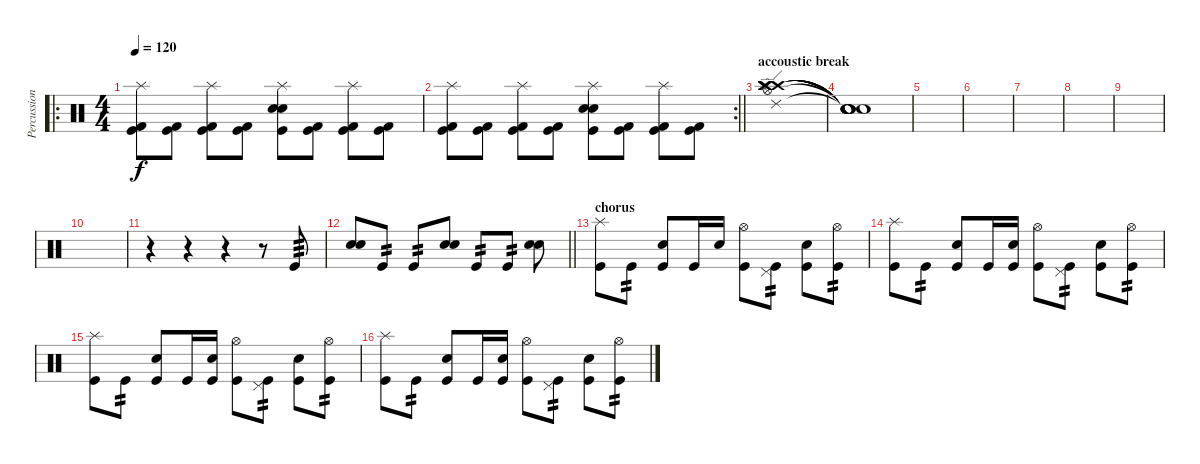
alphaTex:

\track ("Percussion" "Percussion") {instrument percussion}
\staff {score}
\articulation defaults
\ro
\ts (4 4)
\tempo 120
\clef neutral
\ks c
("Splash (hit)" "Kick (hit) 2" "Kick (hit)").8{dy f} ("Kick (hit) 2" "Kick (hit)").8 ("Splash (hit)" "Kick (hit) 2" "Kick (hit)").8 ("Kick (hit) 2" "Kick (hit)").8 ("Splash (hit)" "Snare (hit) 2" "Electric Snare (hit)" "Kick (hit)").8 ("Kick (hit) 2" "Kick (hit)").8 ("Splash (hit)" "Kick (hit) 2" "Kick (hit)").8 ("Kick (hit) 2" "Kick (hit)").8 |
\rc 2
\barLineRight lightlight
("Splash (hit)" "Kick (hit) 2" "Kick (hit)").8 ("Kick (hit) 2" "Kick (hit)").8 ("Splash (hit)" "Kick (hit) 2" "Kick (hit)").8 ("Kick (hit) 2" "Kick (hit)").8 ("Splash (hit)" "Snare (hit) 2" "Electric Snare (hit)" "Kick (hit)").8 ("Kick (hit) 2" "Kick (hit)").8 ("Splash (hit)" "Kick (hit) 2" "Kick (hit)").8 ("Kick (hit) 2" "Kick (hit)").8 |
\section ("" "accoustic break")
("Crash high (hit)" "Crash high (hit)" "Crash high (hit)" "Splash (hit)" "Hi-Hat (open)" "Ride (edge) 2").1 |
("Snare (hit)"{t} "Snare (hit)"{t} "Snare (hit)"{t} "Snare (hit)"{t} "Snare (hit)"{t} "Snare (hit)"{t}).1 |
|
|
|
|
|
|
r.4 r.4 r.4 r.8 "Kick (hit)".8{tp 3} |
\barLineRight lightlight
("Electric Snare (hit)" "Snare (hit) 2").8 "Kick (hit)".8{tp 2} "Kick (hit)".8{tp 2} ("Electric Snare (hit)" "Snare (hit) 2").8 "Kick (hit)".8{tp 2} "Kick (hit)".8{tp 2} ("Electric Snare (hit)" "Snare (hit) 2").8 |
\section ("" "chorus")
("Splash (hit)" "Kick (hit)").8 "Kick (hit)".8{tp 2} ("Electric Snare (hit)" "Kick (hit)").8 "Kick (hit)".16 "Electric Snare (hit)".16 ("Hi-Hat (open)" "Kick (hit)").8 ("Pedal Hi-Hat (hit)" "Kick (hit)").8{tp 2} ("Electric Snare (hit)" "Kick (hit)").8 ("Hi-Hat (open)" "Kick (hit)").8{tp 2} |
("Splash (hit)" "Kick (hit)").8 "Kick (hit)".8{tp 2} ("Electric Snare (hit)" "Kick (hit)").8 "Kick (hit)".16 ("Electric Snare (hit)" "Kick (hit)").16 ("Hi-Hat (open)" "Kick (hit)").8 ("Pedal Hi-Hat (hit)" "Kick (hit)").8{tp 2} ("Electric Snare (hit)" "Kick (hit)").8 ("Hi-Hat (open)" "Kick (hit)").8{tp 2} |
("Splash (hit)" "Kick (hit)").8 "Kick (hit)".8{tp 2} ("Electric Snare (hit)" "Kick (hit)").8 "Kick (hit)".16 ("Electric Snare (hit)" "Kick (hit)").16 ("Hi-Hat (open)" "Kick (hit)").8 ("Pedal Hi-Hat (hit)" "Kick (hit)").8{tp 2} ("Electric Snare (hit)" "Kick (hit)").8 ("Hi-Hat (open)" "Kick (hit)").8{tp 2} |
("Splash (hit)" "Kick (hit)").8 "Kick (hit)".8{tp 2} ("Electric Snare (hit)" "Kick (hit)").8 "Kick (hit)".16 ("Electric Snare (hit)" "Kick (hit)").16 ("Hi-Hat (open)" "Kick (hit)").8 ("Pedal Hi-Hat (hit)" "Kick (hit)").8{tp 2} ("Electric Snare (hit)" "Kick (hit)").8 ("Hi-Hat (open)" "Kick (hit)").8{tp 2}
